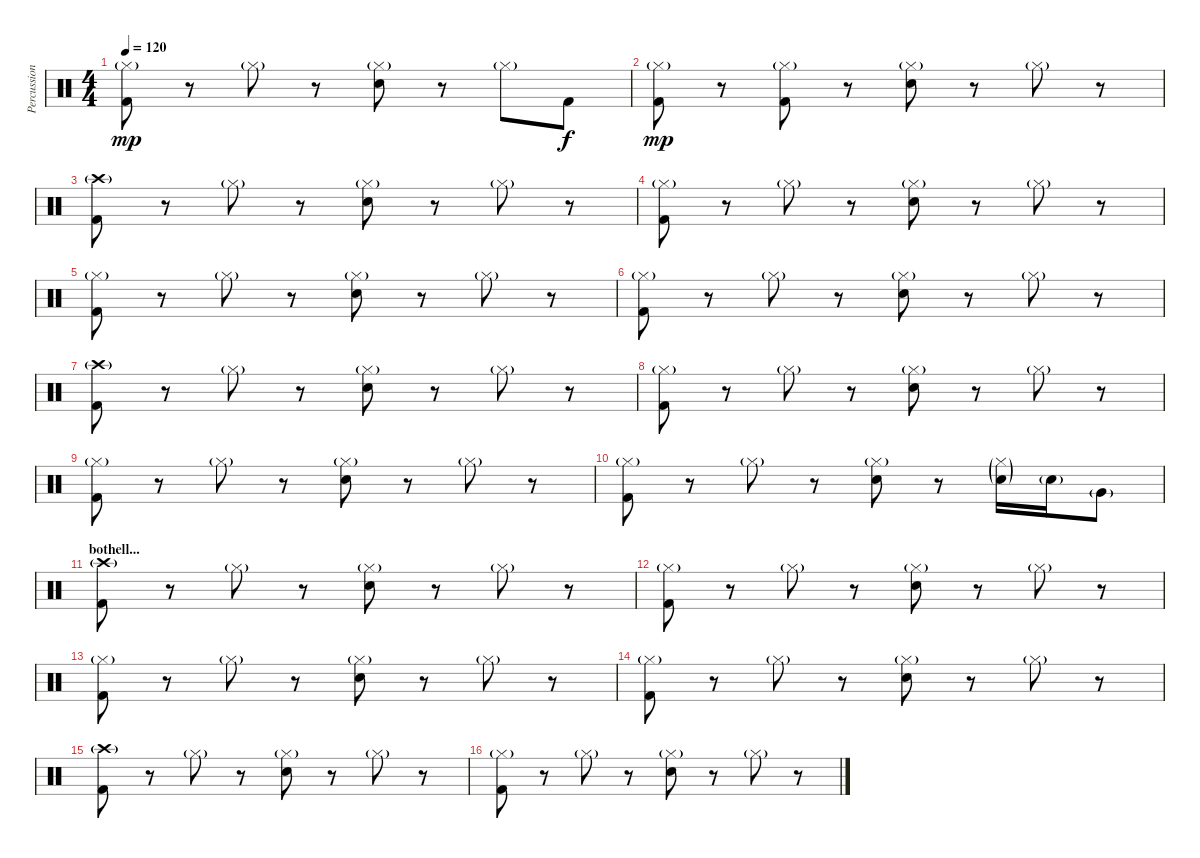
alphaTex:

\track ("Percussion" "Percussion") {instrument percussion}
\staff {score}
\articulation defaults
\ts (4 4)
\tempo 120
\clef neutral
\ks c
("Hi-Hat (closed)"{g} "Kick (hit) 2").8{dy mp} r.8 "Hi-Hat (closed)"{g}.8 r.8 ("Hi-Hat (closed)"{g} "Electric Snare (hit)").8 r.8 "Hi-Hat (closed)"{g}.8 "Kick (hit) 2".8{dy f} |
("Hi-Hat (closed)"{g} "Kick (hit) 2").8{dy mp} r.8 ("Hi-Hat (closed)"{g} "Kick (hit) 2").8 r.8 ("Hi-Hat (closed)"{g} "Electric Snare (hit)").8 r.8 "Hi-Hat (closed)"{g}.8 r.8 |
("Crash high (hit)"{g} "Kick (hit) 2").8 r.8 "Hi-Hat (closed)"{g}.8 r.8 ("Hi-Hat (closed)"{g} "Electric Snare (hit)").8 r.8 "Hi-Hat (closed)"{g}.8 r.8 |
("Hi-Hat (closed)"{g} "Kick (hit) 2").8 r.8 "Hi-Hat (closed)"{g}.8 r.8 ("Hi-Hat (closed)"{g} "Electric Snare (hit)").8 r.8 "Hi-Hat (closed)"{g}.8 r.8 |
("Hi-Hat (closed)"{g} "Kick (hit) 2").8 r.8 "Hi-Hat (closed)"{g}.8 r.8 ("Hi-Hat (closed)"{g} "Electric Snare (hit)").8 r.8 "Hi-Hat (closed)"{g}.8 r.8 |
("Hi-Hat (closed)"{g} "Kick (hit) 2").8 r.8 "Hi-Hat (closed)"{g}.8 r.8 ("Hi-Hat (closed)"{g} "Electric Snare (hit)").8 r.8 "Hi-Hat (closed)"{g}.8 r.8 |
("Crash high (hit)"{g} "Kick (hit) 2").8 r.8 "Hi-Hat (closed)"{g}.8 r.8 ("Hi-Hat (closed)"{g} "Electric Snare (hit)").8 r.8 "Hi-Hat (closed)"{g}.8 r.8 |
("Hi-Hat (closed)"{g} "Kick (hit) 2").8 r.8 "Hi-Hat (closed)"{g}.8 r.8 ("Hi-Hat (closed)"{g} "Electric Snare (hit)").8 r.8 "Hi-Hat (closed)"{g}.8 r.8 |
("Hi-Hat (closed)"{g} "Kick (hit) 2").8 r.8 "Hi-Hat (closed)"{g}.8 r.8 ("Hi-Hat (closed)"{g} "Electric Snare (hit)").8 r.8 "Hi-Hat (closed)"{g}.8 r.8 |
("Hi-Hat (closed)"{g} "Kick (hit) 2").8 r.8 "Hi-Hat (closed)"{g}.8 r.8 ("Hi-Hat (closed)"{g} "Electric Snare (hit)").8 r.8 ("Hi-Hat (closed)"{g} "Electric Snare (hit)"{g}).16 "Electric Snare (hit)"{g}.16 "Very Low Tom (hit)"{g}.8 |
\section ("" "bothell...")
("Crash high (hit)"{g} "Kick (hit) 2").8 r.8 "Hi-Hat (closed)"{g}.8 r.8 ("Hi-Hat (closed)"{g} "Electric Snare (hit)").8 r.8 "Hi-Hat (closed)"{g}.8 r.8 |
("Hi-Hat (closed)"{g} "Kick (hit) 2").8 r.8 "Hi-Hat (closed)"{g}.8 r.8 ("Hi-Hat (closed)"{g} "Electric Snare (hit)").8 r.8 "Hi-Hat (closed)"{g}.8 r.8 |
("Hi-Hat (closed)"{g} "Kick (hit) 2").8 r.8 "Hi-Hat (closed)"{g}.8 r.8 ("Hi-Hat (closed)"{g} "Electric Snare (hit)").8 r.8 "Hi-Hat (closed)"{g}.8 r.8 |
("Hi-Hat (closed)"{g} "Kick (hit) 2").8 r.8 "Hi-Hat (closed)"{g}.8 r.8 ("Hi-Hat (closed)"{g} "Electric Snare (hit)").8 r.8 "Hi-Hat (closed)"{g}.8 r.8 |
("Crash high (hit)"{g} "Kick (hit) 2").8 r.8 "Hi-Hat (closed)"{g}.8 r.8 ("Hi-Hat (closed)"{g} "Electric Snare (hit)").8 r.8 "Hi-Hat (closed)"{g}.8 r.8 |
("Hi-Hat (closed)"{g} "Kick (hit) 2").8 r.8 "Hi-Hat (closed)"{g}.8 r.8 ("Hi-Hat (closed)"{g} "Electric Snare (hit)").8 r.8 "Hi-Hat (closed)"{g}.8 r.8
